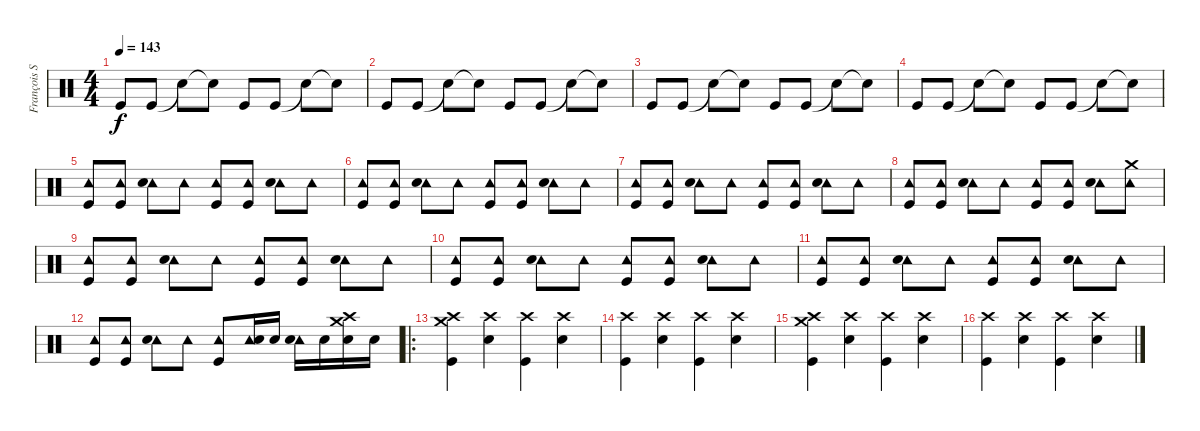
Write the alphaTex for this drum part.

\track ("François Soulier" "François S") {instrument percussion}
\staff {score}
\articulation defaults
\ts (4 4)
\tempo 143
\clef neutral
\ks c "Kick (hit)".8{dy f} "Kick (hit)".8 "Snare (hit)"{t}.8 "Snare (hit)"{t}.8 "Kick (hit)".8 "Kick (hit)".8 "Snare (hit)"{t}.8 "Snare (hit)"{t}.8
|
"Kick (hit)".8 "Kick (hit)".8 "Snare (hit)"{t}.8 "Snare (hit)"{t}.8 "Kick (hit)".8 "Kick (hit)".8 "Snare (hit)"{t}.8 "Snare (hit)"{t}.8 |
"Kick (hit)".8 "Kick (hit)".8 "Snare (hit)"{t}.8 "Snare (hit)"{t}.8 "Kick (hit)".8 "Kick (hit)".8 "Snare (hit)"{t}.8 "Snare (hit)"{t}.8 |
"Kick (hit)".8 "Kick (hit)".8 "Snare (hit)"{t}.8 "Snare (hit)"{t}.8 "Kick (hit)".8 "Kick (hit)".8 "Snare (hit)"{t}.8 "Snare (hit)"{t}.8 |
("Tambourine (hit)" "Kick (hit)").8 ("Tambourine (hit)" "Kick (hit)").8 ("Tambourine (hit)" "Snare (hit) 2").8 "Tambourine (hit)".8 ("Tambourine (hit)" "Kick (hit)").8 ("Tambourine (hit)" "Kick (hit)").8 ("Tambourine (hit)" "Snare (hit) 2").8 "Tambourine (hit)".8 |
("Tambourine (hit)" "Kick (hit)").8 ("Tambourine (hit)" "Kick (hit)").8 ("Tambourine (hit)" "Snare (hit) 2").8 "Tambourine (hit)".8 ("Tambourine (hit)" "Kick (hit)").8 ("Tambourine (hit)" "Kick (hit)").8 ("Tambourine (hit)" "Snare (hit) 2").8 "Tambourine (hit)".8 |
("Tambourine (hit)" "Kick (hit)").8 ("Tambourine (hit)" "Kick (hit)").8 ("Tambourine (hit)" "Snare (hit) 2").8 "Tambourine (hit)".8 ("Tambourine (hit)" "Kick (hit)").8 ("Tambourine (hit)" "Kick (hit)").8 ("Tambourine (hit)" "Snare (hit) 2").8 "Tambourine (hit)".8 |
("Tambourine (hit)" "Kick (hit)").8 ("Tambourine (hit)" "Kick (hit)").8 ("Tambourine (hit)" "Snare (hit) 2").8 "Tambourine (hit)".8 ("Tambourine (hit)" "Kick (hit)").8 ("Tambourine (hit)" "Kick (hit)").8 ("Tambourine (hit)" "Snare (hit) 2").8 ("Tambourine (hit)" "Crash medium (hit)").8 |
("Tambourine (hit)" "Kick (hit)").8 ("Tambourine (hit)" "Kick (hit)").8 ("Tambourine (hit)" "Snare (hit) 2").8 "Tambourine (hit)".8 ("Tambourine (hit)" "Kick (hit)").8 ("Tambourine (hit)" "Kick (hit)").8 ("Tambourine (hit)" "Snare (hit) 2").8 "Tambourine (hit)".8 |
("Tambourine (hit)" "Kick (hit)").8 ("Tambourine (hit)" "Kick (hit)").8 ("Tambourine (hit)" "Snare (hit) 2").8 "Tambourine (hit)".8 ("Tambourine (hit)" "Kick (hit)").8 ("Tambourine (hit)" "Kick (hit)").8 ("Tambourine (hit)" "Snare (hit) 2").8 "Tambourine (hit)".8 |
("Tambourine (hit)" "Kick (hit)").8 ("Tambourine (hit)" "Kick (hit)").8 ("Tambourine (hit)" "Snare (hit) 2").8 "Tambourine (hit)".8 ("Tambourine (hit)" "Kick (hit)").8 ("Tambourine (hit)" "Kick (hit)").8 ("Tambourine (hit)" "Snare (hit) 2").8 "Tambourine (hit)".8 |
("Tambourine (hit)" "Kick (hit)").8 ("Tambourine (hit)" "Kick (hit)").8 ("Tambourine (hit)" "Snare (hit) 2").8 "Tambourine (hit)".8 ("Tambourine (hit)" "Kick (hit)").8 ("Tambourine (hit)" "Snare (hit) 2").16 "Snare (hit) 2".16 ("Tambourine (hit)" "Snare (hit) 2").16 "Snare (hit) 2".16 ("Crash high (hit)" "Crash medium (hit)" "Snare (hit) 2").16 "Snare (hit) 2".16 |
\ro
("Crash high (hit)" "Crash medium (hit)" "Kick (hit)").4 ("Crash high (hit)" "Snare (hit) 2").4 ("Crash high (hit)" "Kick (hit)").4 ("Crash high (hit)" "Snare (hit) 2").4 |
("Crash high (hit)" "Kick (hit)").4 ("Crash high (hit)" "Snare (hit) 2").4 ("Crash high (hit)" "Kick (hit)").4 ("Crash high (hit)" "Snare (hit) 2").4 |
("Crash high (hit)" "Crash medium (hit)" "Kick (hit)").4 ("Crash high (hit)" "Snare (hit) 2").4 ("Crash high (hit)" "Kick (hit)").4 ("Crash high (hit)" "Snare (hit) 2").4 |
("Crash high (hit)" "Kick (hit)").4 ("Crash high (hit)" "Snare (hit) 2").4 ("Crash high (hit)" "Kick (hit)").4 ("Crash high (hit)" "Snare (hit) 2").4
